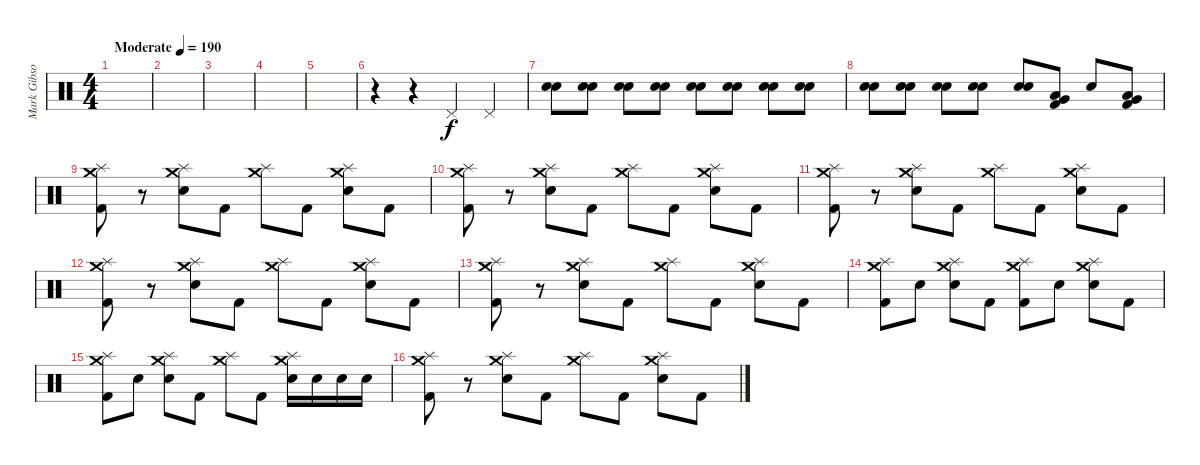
\track ("Mark Gibson" "Mark Gibso") {instrument percussion}
\staff {score}
\articulation defaults
\ts (4 4)
\tempo (190 "Moderate")
\clef neutral
\ks c
|
|
|
|
|
r.4 r.4 "Pedal Hi-Hat (hit)".4 "Pedal Hi-Hat (hit)".4 |
("Electric Snare (hit)" "Electric Snare (hit)").8 ("Electric Snare (hit)" "Electric Snare (hit)").8 ("Electric Snare (hit)" "Electric Snare (hit)").8 ("Electric Snare (hit)" "Electric Snare (hit)").8 ("Electric Snare (hit)" "Electric Snare (hit)").8 ("Electric Snare (hit)" "Electric Snare (hit)").8 ("Electric Snare (hit)" "Electric Snare (hit)").8 ("Electric Snare (hit)" "Electric Snare (hit)").8 |
("Electric Snare (hit)" "Electric Snare (hit)").8 ("Electric Snare (hit)" "Electric Snare (hit)").8 ("Electric Snare (hit)" "Electric Snare (hit)").8 ("Electric Snare (hit)" "Electric Snare (hit)").8 ("Electric Snare (hit)" "Electric Snare (hit)").8 ("Kick (hit) 2" "Very Low Tom (hit)" "Low Floor Tom (hit)").8 "Electric Snare (hit)".8 ("Kick (hit) 2" "Very Low Tom (hit)" "Low Floor Tom (hit)").8 |
("Crash medium (hit)" "Splash (hit)" "Kick (hit) 2").8 r.8 ("Crash medium (hit)" "Splash (hit)" "Electric Snare (hit)").8 "Kick (hit) 2".8 ("Crash medium (hit)" "Splash (hit)").8 "Kick (hit) 2".8 ("Crash medium (hit)" "Splash (hit)" "Electric Snare (hit)").8 "Kick (hit) 2".8 |
("Crash medium (hit)" "Splash (hit)" "Kick (hit) 2").8 r.8 ("Crash medium (hit)" "Splash (hit)" "Electric Snare (hit)").8 "Kick (hit) 2".8 ("Crash medium (hit)" "Splash (hit)").8 "Kick (hit) 2".8 ("Crash medium (hit)" "Splash (hit)" "Electric Snare (hit)").8 "Kick (hit) 2".8 |
("Crash medium (hit)" "Splash (hit)" "Kick (hit) 2").8 r.8 ("Crash medium (hit)" "Splash (hit)" "Electric Snare (hit)").8 "Kick (hit) 2".8 ("Crash medium (hit)" "Splash (hit)").8 "Kick (hit) 2".8 ("Crash medium (hit)" "Splash (hit)" "Electric Snare (hit)").8 "Kick (hit) 2".8 |
("Crash medium (hit)" "Splash (hit)" "Kick (hit) 2").8 r.8 ("Crash medium (hit)" "Splash (hit)" "Electric Snare (hit)").8 "Kick (hit) 2".8 ("Crash medium (hit)" "Splash (hit)").8 "Kick (hit) 2".8 ("Crash medium (hit)" "Splash (hit)" "Electric Snare (hit)").8 "Kick (hit) 2".8 |
("Crash medium (hit)" "Splash (hit)" "Kick (hit) 2").8 r.8 ("Crash medium (hit)" "Splash (hit)" "Electric Snare (hit)").8 "Kick (hit) 2".8 ("Crash medium (hit)" "Splash (hit)").8 "Kick (hit) 2".8 ("Crash medium (hit)" "Splash (hit)" "Electric Snare (hit)").8 "Kick (hit) 2".8 |
("Crash medium (hit)" "Splash (hit)" "Kick (hit) 2").8 "Electric Snare (hit)".8 ("Crash medium (hit)" "Splash (hit)" "Electric Snare (hit)").8 "Kick (hit) 2".8 ("Crash medium (hit)" "Splash (hit)" "Kick (hit) 2").8 "Electric Snare (hit)".8 ("Crash medium (hit)" "Splash (hit)" "Electric Snare (hit)").8 "Kick (hit) 2".8 |
("Crash medium (hit)" "Splash (hit)" "Kick (hit) 2").8 "Electric Snare (hit)".8 ("Crash medium (hit)" "Splash (hit)" "Electric Snare (hit)").8 "Kick (hit) 2".8 ("Crash medium (hit)" "Splash (hit)").8 "Kick (hit) 2".8 ("Crash medium (hit)" "Splash (hit)" "Electric Snare (hit)").16 "Electric Snare (hit)".16 "Electric Snare (hit)".16 "Electric Snare (hit)".16 |
("Crash medium (hit)" "Splash (hit)" "Kick (hit) 2").8 r.8 ("Crash medium (hit)" "Splash (hit)" "Electric Snare (hit)").8 "Kick (hit) 2".8 ("Crash medium (hit)" "Splash (hit)").8 "Kick (hit) 2".8 ("Crash medium (hit)" "Splash (hit)" "Electric Snare (hit)").8 "Kick (hit) 2".8
